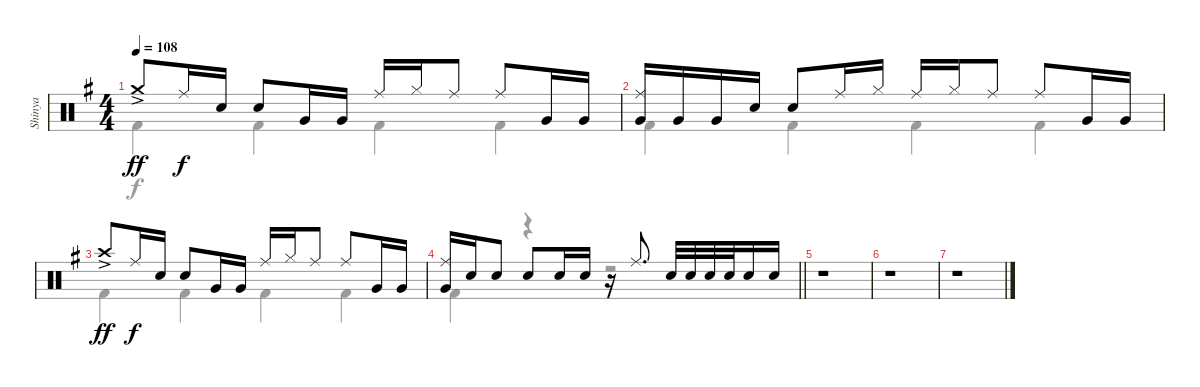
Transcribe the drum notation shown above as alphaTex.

\track ("Shinya" "Shinya") {instrument percussion}
\staff {score}
\articulation defaults
\voice
\ts (4 4)
\tempo 108
\clef neutral
\ks eminor "Crash medium (hit)"{ac}.8{dy ff} "Ride (middle)".16{dy f} "Snare (hit) 2".16 "Snare (hit) 2".8 "Very Low Tom (hit)".16 "Very Low Tom (hit)".16 "Ride (middle)".16 "Hi-Hat (closed)".16 "Ride (middle)".8 "Ride (middle)".8 "Very Low Tom (hit)".16 "Very Low Tom (hit)".16
|
("Ride (middle)" "Very Low Tom (hit)").16 "Very Low Tom (hit)".16 "Very Low Tom (hit)".16 "Snare (hit) 2".16 "Snare (hit) 2".8 "Ride (middle)".16 "Hi-Hat (closed)".16 "Ride (middle)".16 "Hi-Hat (closed)".16 "Ride (middle)".8 "Ride (middle)".8 "Very Low Tom (hit)".16 "Very Low Tom (hit)".16 |
"Crash high (hit)"{ac}.8{dy ff} "Ride (middle)".16{dy f} "Snare (hit) 2".16 "Snare (hit) 2".8 "Very Low Tom (hit)".16 "Very Low Tom (hit)".16 "Ride (middle)".16 "Hi-Hat (closed)".16 "Ride (middle)".8 "Ride (middle)".8 "Very Low Tom (hit)".16 "Very Low Tom (hit)".16 |
\barLineRight lightlight
("Ride (middle)" "Very Low Tom (hit)").16 "Snare (hit) 2".16 "Snare (hit) 2".8 "Snare (hit) 2".8 "Snare (hit) 2".16 "Snare (hit) 2".16 r.16 "Ride (middle)".8{d} "Snare (hit) 2".32 "Snare (hit) 2".32 "Snare (hit) 2".32 "Snare (hit) 2".32 "Snare (hit) 2".16 "Snare (hit) 2".16 |
r.1 |
r.1 |
r.1
\voice
\clef neutral
\ottava regular
\simile none
\ks eminor "Kick (hit) 2".4{dy f} "Kick (hit) 2".4 "Kick (hit) 2".4 "Kick (hit) 2".4
|
"Kick (hit) 2".4 "Kick (hit) 2".4 "Kick (hit) 2".4 "Kick (hit) 2".4 |
"Kick (hit) 2".4 "Kick (hit) 2".4 "Kick (hit) 2".4 "Kick (hit) 2".4 |
\barLineRight lightlight "Kick (hit) 2".4
r.4 r.2 |
r.1 |
r.1 |
r.1
